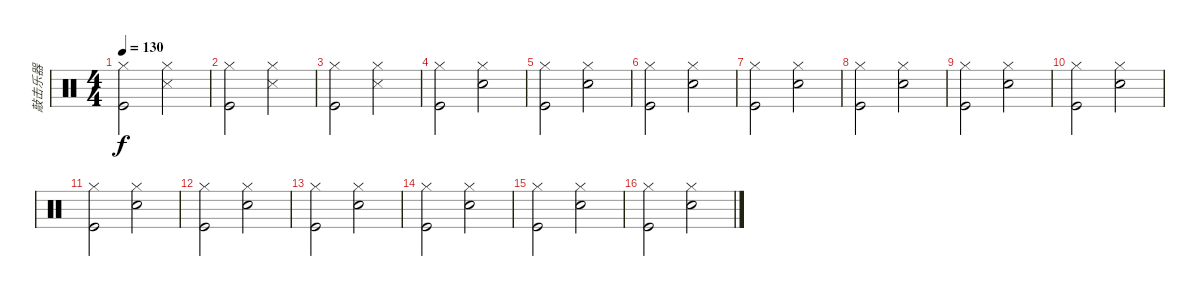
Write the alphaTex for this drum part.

\track ("敲击乐器" "敲击乐器") {instrument percussion}
\staff {score}
\articulation defaults
\ts (4 4)
\tempo 130
\clef neutral
\ks c
("Hi-Hat (closed)" "Kick (hit)").2{dy f} ("Hi-Hat (closed)" "Snare (side stick) 3").2 |
("Hi-Hat (closed)" "Kick (hit)").2 ("Hi-Hat (closed)" "Snare (side stick) 3").2 |
("Hi-Hat (closed)" "Kick (hit)").2 ("Hi-Hat (closed)" "Snare (side stick) 3").2 |
("Hi-Hat (closed)" "Kick (hit)").2 ("Hi-Hat (closed)" "Electric Snare (hit)").2 |
("Hi-Hat (closed)" "Kick (hit)").2 ("Hi-Hat (closed)" "Electric Snare (hit)").2 |
("Hi-Hat (closed)" "Kick (hit)").2 ("Hi-Hat (closed)" "Electric Snare (hit)").2 |
("Hi-Hat (closed)" "Kick (hit)").2 ("Hi-Hat (closed)" "Electric Snare (hit)").2 |
("Hi-Hat (closed)" "Kick (hit)").2 ("Hi-Hat (closed)" "Electric Snare (hit)").2 |
("Hi-Hat (closed)" "Kick (hit)").2 ("Hi-Hat (closed)" "Electric Snare (hit)").2 |
("Hi-Hat (closed)" "Kick (hit)").2 ("Hi-Hat (closed)" "Electric Snare (hit)").2 |
("Hi-Hat (closed)" "Kick (hit)").2 ("Hi-Hat (closed)" "Electric Snare (hit)").2 |
("Hi-Hat (closed)" "Kick (hit)").2 ("Hi-Hat (closed)" "Electric Snare (hit)").2 |
("Hi-Hat (closed)" "Kick (hit)").2 ("Hi-Hat (closed)" "Electric Snare (hit)").2 |
("Hi-Hat (closed)" "Kick (hit)").2 ("Hi-Hat (closed)" "Electric Snare (hit)").2 |
("Hi-Hat (closed)" "Kick (hit)").2 ("Hi-Hat (closed)" "Electric Snare (hit)").2 |
("Hi-Hat (closed)" "Kick (hit)").2 ("Hi-Hat (closed)" "Electric Snare (hit)").2
